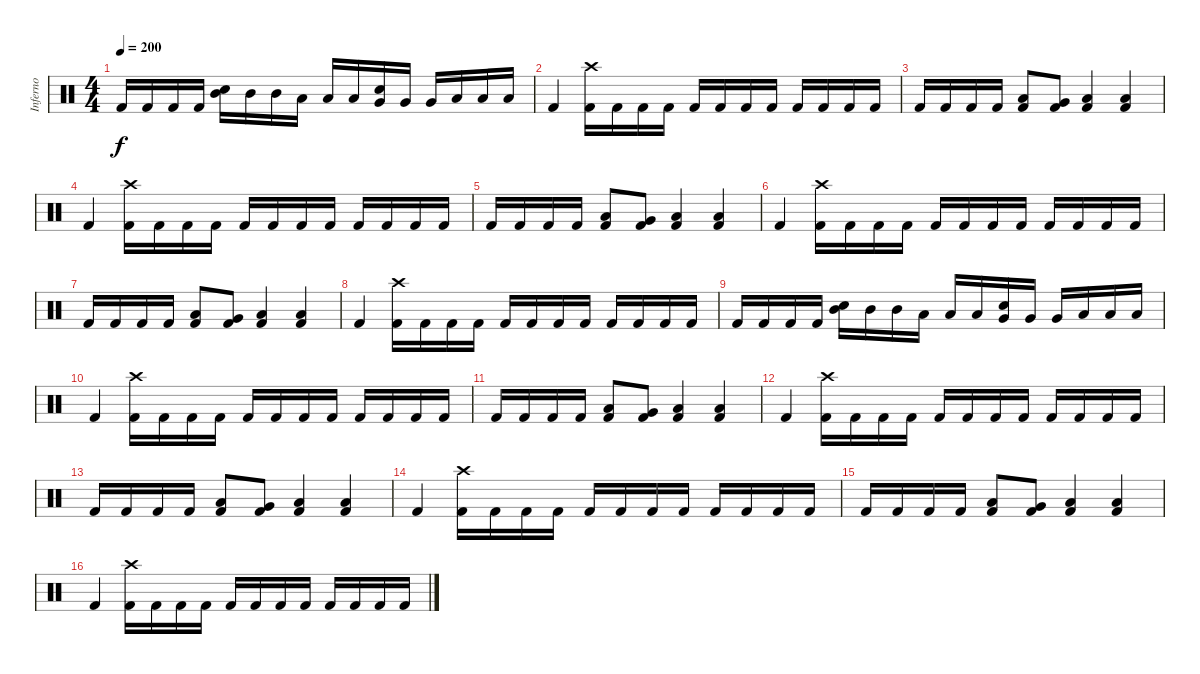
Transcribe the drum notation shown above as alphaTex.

\track ("Inferno" "Inferno") {instrument percussion}
\staff {score}
\articulation defaults
\ts (4 4)
\tempo 200
\clef neutral
\ks c "Kick (hit) 2".16{dy f} "Kick (hit) 2".16 "Kick (hit) 2".16 "Kick (hit) 2".16
("Mid Tom (hit)" "Electric Snare (hit)").16 "Mid Tom (hit)".16 "Mid Tom (hit)".16 "Low Tom (hit)".16 "Low Tom (hit)".16 "Low Tom (hit)".16 ("Very Low Tom (hit)" "Electric Snare (hit)").16 "Very Low Tom (hit)".16 "Very Low Tom (hit)".16 "Low Floor Tom (hit)".16 "Low Floor Tom (hit)".16 "Low Floor Tom (hit)".16 |
"Kick (hit) 2".4 ("Crash high (hit)" "Kick (hit) 2").16 "Kick (hit) 2".16 "Kick (hit) 2".16 "Kick (hit) 2".16 "Kick (hit) 2".16 "Kick (hit) 2".16 "Kick (hit) 2".16 "Kick (hit) 2".16 "Kick (hit) 2".16 "Kick (hit) 2".16 "Kick (hit) 2".16 "Kick (hit) 2".16 |
"Kick (hit) 2".16 "Kick (hit) 2".16 "Kick (hit) 2".16 "Kick (hit) 2".16 ("Low Tom (hit)" "Kick (hit) 2").8 ("Very Low Tom (hit)" "Kick (hit) 2").8 ("Low Floor Tom (hit)" "Kick (hit) 2").4 ("Low Floor Tom (hit)" "Kick (hit) 2").4 |
"Kick (hit) 2".4 ("Crash high (hit)" "Kick (hit) 2").16 "Kick (hit) 2".16 "Kick (hit) 2".16 "Kick (hit) 2".16 "Kick (hit) 2".16 "Kick (hit) 2".16 "Kick (hit) 2".16 "Kick (hit) 2".16 "Kick (hit) 2".16 "Kick (hit) 2".16 "Kick (hit) 2".16 "Kick (hit) 2".16 |
"Kick (hit) 2".16 "Kick (hit) 2".16 "Kick (hit) 2".16 "Kick (hit) 2".16 ("Low Tom (hit)" "Kick (hit) 2").8 ("Very Low Tom (hit)" "Kick (hit) 2").8 ("Low Floor Tom (hit)" "Kick (hit) 2").4 ("Low Floor Tom (hit)" "Kick (hit) 2").4 |
"Kick (hit) 2".4 ("Crash high (hit)" "Kick (hit) 2").16 "Kick (hit) 2".16 "Kick (hit) 2".16 "Kick (hit) 2".16 "Kick (hit) 2".16 "Kick (hit) 2".16 "Kick (hit) 2".16 "Kick (hit) 2".16 "Kick (hit) 2".16 "Kick (hit) 2".16 "Kick (hit) 2".16 "Kick (hit) 2".16 |
"Kick (hit) 2".16 "Kick (hit) 2".16 "Kick (hit) 2".16 "Kick (hit) 2".16 ("Low Tom (hit)" "Kick (hit) 2").8 ("Very Low Tom (hit)" "Kick (hit) 2").8 ("Low Floor Tom (hit)" "Kick (hit) 2").4 ("Low Floor Tom (hit)" "Kick (hit) 2").4 |
"Kick (hit) 2".4 ("Crash high (hit)" "Kick (hit) 2").16 "Kick (hit) 2".16 "Kick (hit) 2".16 "Kick (hit) 2".16 "Kick (hit) 2".16 "Kick (hit) 2".16 "Kick (hit) 2".16 "Kick (hit) 2".16 "Kick (hit) 2".16 "Kick (hit) 2".16 "Kick (hit) 2".16 "Kick (hit) 2".16 |
"Kick (hit) 2".16 "Kick (hit) 2".16 "Kick (hit) 2".16 "Kick (hit) 2".16 ("Mid Tom (hit)" "Electric Snare (hit)").16 "Mid Tom (hit)".16 "Mid Tom (hit)".16 "Low Tom (hit)".16 "Low Tom (hit)".16 "Low Tom (hit)".16 ("Very Low Tom (hit)" "Electric Snare (hit)").16 "Very Low Tom (hit)".16 "Very Low Tom (hit)".16 "Low Floor Tom (hit)".16 "Low Floor Tom (hit)".16 "Low Floor Tom (hit)".16 |
"Kick (hit) 2".4 ("Crash high (hit)" "Kick (hit) 2").16 "Kick (hit) 2".16 "Kick (hit) 2".16 "Kick (hit) 2".16 "Kick (hit) 2".16 "Kick (hit) 2".16 "Kick (hit) 2".16 "Kick (hit) 2".16 "Kick (hit) 2".16 "Kick (hit) 2".16 "Kick (hit) 2".16 "Kick (hit) 2".16 |
"Kick (hit) 2".16 "Kick (hit) 2".16 "Kick (hit) 2".16 "Kick (hit) 2".16 ("Low Tom (hit)" "Kick (hit) 2").8 ("Very Low Tom (hit)" "Kick (hit) 2").8 ("Low Floor Tom (hit)" "Kick (hit) 2").4 ("Low Floor Tom (hit)" "Kick (hit) 2").4 |
"Kick (hit) 2".4 ("Crash high (hit)" "Kick (hit) 2").16 "Kick (hit) 2".16 "Kick (hit) 2".16 "Kick (hit) 2".16 "Kick (hit) 2".16 "Kick (hit) 2".16 "Kick (hit) 2".16 "Kick (hit) 2".16 "Kick (hit) 2".16 "Kick (hit) 2".16 "Kick (hit) 2".16 "Kick (hit) 2".16 |
"Kick (hit) 2".16 "Kick (hit) 2".16 "Kick (hit) 2".16 "Kick (hit) 2".16 ("Low Tom (hit)" "Kick (hit) 2").8 ("Very Low Tom (hit)" "Kick (hit) 2").8 ("Low Floor Tom (hit)" "Kick (hit) 2").4 ("Low Floor Tom (hit)" "Kick (hit) 2").4 |
"Kick (hit) 2".4 ("Crash high (hit)" "Kick (hit) 2").16 "Kick (hit) 2".16 "Kick (hit) 2".16 "Kick (hit) 2".16 "Kick (hit) 2".16 "Kick (hit) 2".16 "Kick (hit) 2".16 "Kick (hit) 2".16 "Kick (hit) 2".16 "Kick (hit) 2".16 "Kick (hit) 2".16 "Kick (hit) 2".16 |
"Kick (hit) 2".16 "Kick (hit) 2".16 "Kick (hit) 2".16 "Kick (hit) 2".16 ("Low Tom (hit)" "Kick (hit) 2").8 ("Very Low Tom (hit)" "Kick (hit) 2").8 ("Low Floor Tom (hit)" "Kick (hit) 2").4 ("Low Floor Tom (hit)" "Kick (hit) 2").4 |
"Kick (hit) 2".4 ("Crash high (hit)" "Kick (hit) 2").16 "Kick (hit) 2".16 "Kick (hit) 2".16 "Kick (hit) 2".16 "Kick (hit) 2".16 "Kick (hit) 2".16 "Kick (hit) 2".16 "Kick (hit) 2".16 "Kick (hit) 2".16 "Kick (hit) 2".16 "Kick (hit) 2".16 "Kick (hit) 2".16
